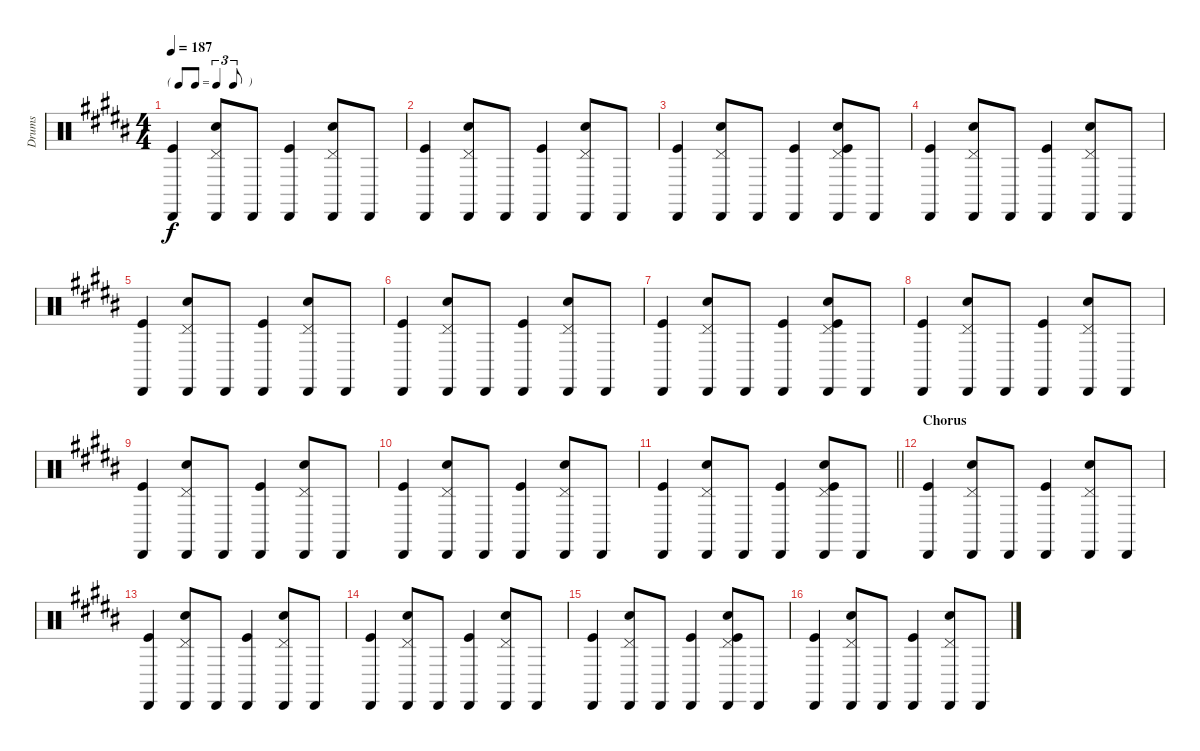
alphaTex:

\track ("Drums" "Drums") {instrument percussion}
\staff {score}
\articulation defaults
\ts (4 4)
\tf triplet8th
\tempo 187
\clef neutral
\ks b
("Cabasa (hit)" "Kick (hit)").4{dy f} ("Pedal Hi-Hat (hit)" "Cabasa (hit)" "Snare (hit) 2").8 "Cabasa (hit)".8 ("Cabasa (hit)" "Kick (hit)").4 ("Pedal Hi-Hat (hit)" "Cabasa (hit)" "Snare (hit) 2").8 "Cabasa (hit)".8 |
("Cabasa (hit)" "Kick (hit)").4 ("Pedal Hi-Hat (hit)" "Cabasa (hit)" "Snare (hit) 2").8 "Cabasa (hit)".8 ("Cabasa (hit)" "Kick (hit)").4 ("Pedal Hi-Hat (hit)" "Cabasa (hit)" "Snare (hit) 2").8 "Cabasa (hit)".8 |
("Cabasa (hit)" "Kick (hit)").4 ("Pedal Hi-Hat (hit)" "Cabasa (hit)" "Snare (hit) 2").8 "Cabasa (hit)".8 ("Cabasa (hit)" "Kick (hit)").4 ("Pedal Hi-Hat (hit)" "Cabasa (hit)" "Snare (hit) 2" "Kick (hit)").8 "Cabasa (hit)".8 |
("Cabasa (hit)" "Kick (hit)").4 ("Pedal Hi-Hat (hit)" "Cabasa (hit)" "Snare (hit) 2").8 "Cabasa (hit)".8 ("Cabasa (hit)" "Kick (hit)").4 ("Pedal Hi-Hat (hit)" "Cabasa (hit)" "Snare (hit) 2").8 "Cabasa (hit)".8 |
("Cabasa (hit)" "Kick (hit)").4 ("Pedal Hi-Hat (hit)" "Cabasa (hit)" "Snare (hit) 2").8 "Cabasa (hit)".8 ("Cabasa (hit)" "Kick (hit)").4 ("Pedal Hi-Hat (hit)" "Cabasa (hit)" "Snare (hit) 2").8 "Cabasa (hit)".8 |
("Cabasa (hit)" "Kick (hit)").4 ("Pedal Hi-Hat (hit)" "Cabasa (hit)" "Snare (hit) 2").8 "Cabasa (hit)".8 ("Cabasa (hit)" "Kick (hit)").4 ("Pedal Hi-Hat (hit)" "Cabasa (hit)" "Snare (hit) 2").8 "Cabasa (hit)".8 |
("Cabasa (hit)" "Kick (hit)").4 ("Pedal Hi-Hat (hit)" "Cabasa (hit)" "Snare (hit) 2").8 "Cabasa (hit)".8 ("Cabasa (hit)" "Kick (hit)").4 ("Pedal Hi-Hat (hit)" "Cabasa (hit)" "Snare (hit) 2" "Kick (hit)").8 "Cabasa (hit)".8 |
("Cabasa (hit)" "Kick (hit)").4 ("Pedal Hi-Hat (hit)" "Cabasa (hit)" "Snare (hit) 2").8 "Cabasa (hit)".8 ("Cabasa (hit)" "Kick (hit)").4 ("Pedal Hi-Hat (hit)" "Cabasa (hit)" "Snare (hit) 2").8 "Cabasa (hit)".8 |
("Cabasa (hit)" "Kick (hit)").4 ("Pedal Hi-Hat (hit)" "Cabasa (hit)" "Snare (hit) 2").8 "Cabasa (hit)".8 ("Cabasa (hit)" "Kick (hit)").4 ("Pedal Hi-Hat (hit)" "Cabasa (hit)" "Snare (hit) 2").8 "Cabasa (hit)".8 |
("Cabasa (hit)" "Kick (hit)").4 ("Pedal Hi-Hat (hit)" "Cabasa (hit)" "Snare (hit) 2").8 "Cabasa (hit)".8 ("Cabasa (hit)" "Kick (hit)").4 ("Pedal Hi-Hat (hit)" "Cabasa (hit)" "Snare (hit) 2").8 "Cabasa (hit)".8 |
\barLineRight lightlight
("Cabasa (hit)" "Kick (hit)").4 ("Pedal Hi-Hat (hit)" "Cabasa (hit)" "Snare (hit) 2").8 "Cabasa (hit)".8 ("Cabasa (hit)" "Kick (hit)").4 ("Pedal Hi-Hat (hit)" "Cabasa (hit)" "Snare (hit) 2" "Kick (hit)").8 "Cabasa (hit)".8 |
\section ("" "Chorus")
("Cabasa (hit)" "Kick (hit)").4 ("Pedal Hi-Hat (hit)" "Cabasa (hit)" "Snare (hit) 2").8 "Cabasa (hit)".8 ("Cabasa (hit)" "Kick (hit)").4 ("Pedal Hi-Hat (hit)" "Cabasa (hit)" "Snare (hit) 2").8 "Cabasa (hit)".8 |
("Cabasa (hit)" "Kick (hit)").4 ("Pedal Hi-Hat (hit)" "Cabasa (hit)" "Snare (hit) 2").8 "Cabasa (hit)".8 ("Cabasa (hit)" "Kick (hit)").4 ("Pedal Hi-Hat (hit)" "Cabasa (hit)" "Snare (hit) 2").8 "Cabasa (hit)".8 |
("Cabasa (hit)" "Kick (hit)").4 ("Pedal Hi-Hat (hit)" "Cabasa (hit)" "Snare (hit) 2").8 "Cabasa (hit)".8 ("Cabasa (hit)" "Kick (hit)").4 ("Pedal Hi-Hat (hit)" "Cabasa (hit)" "Snare (hit) 2").8 "Cabasa (hit)".8 |
("Cabasa (hit)" "Kick (hit)").4 ("Pedal Hi-Hat (hit)" "Cabasa (hit)" "Snare (hit) 2").8 "Cabasa (hit)".8 ("Cabasa (hit)" "Kick (hit)").4 ("Pedal Hi-Hat (hit)" "Cabasa (hit)" "Snare (hit) 2" "Kick (hit)").8 "Cabasa (hit)".8 |
("Cabasa (hit)" "Kick (hit)").4 ("Pedal Hi-Hat (hit)" "Cabasa (hit)" "Snare (hit) 2").8 "Cabasa (hit)".8 ("Cabasa (hit)" "Kick (hit)").4 ("Pedal Hi-Hat (hit)" "Cabasa (hit)" "Snare (hit) 2").8 "Cabasa (hit)".8
